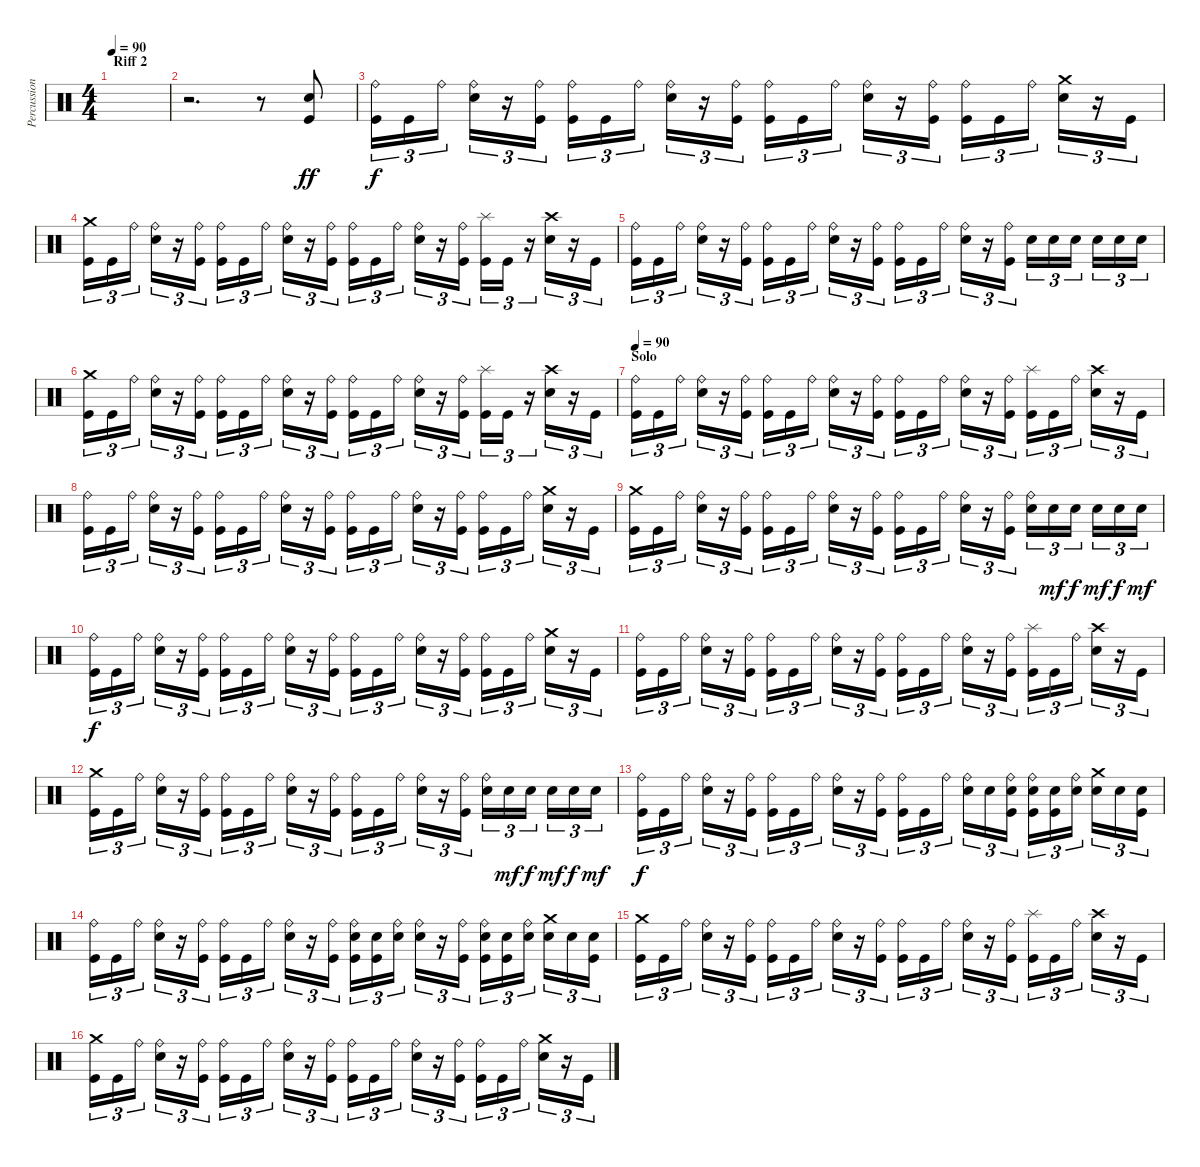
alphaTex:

\track ("Percussioni" "Percussion") {instrument percussion}
\staff {score}
\articulation defaults
\ts (4 4)
\section ("" "Riff 2")
\tempo 90
\clef neutral
\ks c
|
r.2{d} r.8 ("Snare (hit) 2" "Kick (hit)").8{dy ff} |
("Ride (bell)" "Kick (hit)").16{tu (3 2) dy f} "Kick (hit)".16{tu (3 2)} "Ride (bell)".16{tu (3 2)} ("Ride (bell)" "Snare (hit) 2").16{tu (3 2)} r.16{tu (3 2)} ("Ride (bell)" "Kick (hit)").16{tu (3 2)} ("Ride (bell)" "Kick (hit)").16{tu (3 2)} "Kick (hit)".16{tu (3 2)} "Ride (bell)".16{tu (3 2)} ("Ride (bell)" "Snare (hit) 2").16{tu (3 2)} r.16{tu (3 2)} ("Ride (bell)" "Kick (hit)").16{tu (3 2)} ("Ride (bell)" "Kick (hit)").16{tu (3 2)} "Kick (hit)".16{tu (3 2)} "Ride (bell)".16{tu (3 2)} ("Ride (bell)" "Snare (hit) 2").16{tu (3 2)} r.16{tu (3 2)} ("Ride (bell)" "Kick (hit)").16{tu (3 2)} ("Ride (bell)" "Kick (hit)").16{tu (3 2)} "Kick (hit)".16{tu (3 2)} "Ride (bell)".16{tu (3 2)} ("Crash medium (hit)" "Snare (hit) 2").16{tu (3 2)} r.16{tu (3 2)} "Kick (hit)".16{tu (3 2)} |
("Crash medium (hit)" "Kick (hit)").16{tu (3 2)} "Kick (hit)".16{tu (3 2)} "Ride (bell)".16{tu (3 2)} ("Ride (bell)" "Snare (hit) 2").16{tu (3 2)} r.16{tu (3 2)} ("Ride (bell)" "Kick (hit)").16{tu (3 2)} ("Ride (bell)" "Kick (hit)").16{tu (3 2)} "Kick (hit)".16{tu (3 2)} "Ride (bell)".16{tu (3 2)} ("Ride (bell)" "Snare (hit) 2").16{tu (3 2)} r.16{tu (3 2)} ("Ride (bell)" "Kick (hit)").16{tu (3 2)} ("Ride (bell)" "Kick (hit)").16{tu (3 2)} "Kick (hit)".16{tu (3 2)} "Ride (bell)".16{tu (3 2)} ("Ride (bell)" "Snare (hit) 2").16{tu (3 2)} r.16{tu (3 2)} ("Ride (bell)" "Kick (hit)").16{tu (3 2)} ("Splash (hit)" "Kick (hit)").16{tu (3 2)} "Kick (hit)".16{tu (3 2)} r.16{tu (3 2)} ("Crash high (hit)" "Snare (hit) 2").16{tu (3 2)} r.16{tu (3 2)} "Kick (hit)".16{tu (3 2)} |
("Ride (bell)" "Kick (hit)").16{tu (3 2)} "Kick (hit)".16{tu (3 2)} "Ride (bell)".16{tu (3 2)} ("Ride (bell)" "Snare (hit) 2").16{tu (3 2)} r.16{tu (3 2)} ("Ride (bell)" "Kick (hit)").16{tu (3 2)} ("Ride (bell)" "Kick (hit)").16{tu (3 2)} "Kick (hit)".16{tu (3 2)} "Ride (bell)".16{tu (3 2)} ("Ride (bell)" "Snare (hit) 2").16{tu (3 2)} r.16{tu (3 2)} ("Ride (bell)" "Kick (hit)").16{tu (3 2)} ("Ride (bell)" "Kick (hit)").16{tu (3 2)} "Kick (hit)".16{tu (3 2)} "Ride (bell)".16{tu (3 2)} ("Ride (bell)" "Snare (hit) 2").16{tu (3 2)} r.16{tu (3 2)} ("Ride (bell)" "Kick (hit)").16{tu (3 2)} "Snare (hit) 2".16{tu (3 2)} "Snare (hit) 2".16{tu (3 2)} "Snare (hit) 2".16{tu (3 2)} "Snare (hit) 2".16{tu (3 2)} "Snare (hit) 2".16{tu (3 2)} "Snare (hit) 2".16{tu (3 2)} |
("Crash medium (hit)" "Kick (hit)").16{tu (3 2)} "Kick (hit)".16{tu (3 2)} "Ride (bell)".16{tu (3 2)} ("Ride (bell)" "Snare (hit) 2").16{tu (3 2)} r.16{tu (3 2)} ("Ride (bell)" "Kick (hit)").16{tu (3 2)} ("Ride (bell)" "Kick (hit)").16{tu (3 2)} "Kick (hit)".16{tu (3 2)} "Ride (bell)".16{tu (3 2)} ("Ride (bell)" "Snare (hit) 2").16{tu (3 2)} r.16{tu (3 2)} ("Ride (bell)" "Kick (hit)").16{tu (3 2)} ("Ride (bell)" "Kick (hit)").16{tu (3 2)} "Kick (hit)".16{tu (3 2)} "Ride (bell)".16{tu (3 2)} ("Ride (bell)" "Snare (hit) 2").16{tu (3 2)} r.16{tu (3 2)} ("Ride (bell)" "Kick (hit)").16{tu (3 2)} ("Splash (hit)" "Kick (hit)").16{tu (3 2)} "Kick (hit)".16{tu (3 2)} r.16{tu (3 2)} ("Crash high (hit)" "Snare (hit) 2").16{tu (3 2)} r.16{tu (3 2)} "Kick (hit)".16{tu (3 2)} |
\section ("" "Solo")
\tempo 90
("Ride (bell)" "Kick (hit)").16{tu (3 2)} "Kick (hit)".16{tu (3 2)} "Ride (bell)".16{tu (3 2)} ("Ride (bell)" "Snare (hit) 2").16{tu (3 2)} r.16{tu (3 2)} ("Ride (bell)" "Kick (hit)").16{tu (3 2)} ("Ride (bell)" "Kick (hit)").16{tu (3 2)} "Kick (hit)".16{tu (3 2)} "Ride (bell)".16{tu (3 2)} ("Ride (bell)" "Snare (hit) 2").16{tu (3 2)} r.16{tu (3 2)} ("Ride (bell)" "Kick (hit)").16{tu (3 2)} ("Ride (bell)" "Kick (hit)").16{tu (3 2)} "Kick (hit)".16{tu (3 2)} "Ride (bell)".16{tu (3 2)} ("Ride (bell)" "Snare (hit) 2").16{tu (3 2)} r.16{tu (3 2)} ("Ride (bell)" "Kick (hit)").16{tu (3 2)} ("Splash (hit)" "Kick (hit)").16{tu (3 2)} "Kick (hit)".16{tu (3 2)} "Ride (bell)".16{tu (3 2)} ("Crash high (hit)" "Snare (hit) 2").16{tu (3 2)} r.16{tu (3 2)} "Kick (hit)".16{tu (3 2)} |
("Ride (bell)" "Kick (hit)").16{tu (3 2)} "Kick (hit)".16{tu (3 2)} "Ride (bell)".16{tu (3 2)} ("Ride (bell)" "Snare (hit) 2").16{tu (3 2)} r.16{tu (3 2)} ("Ride (bell)" "Kick (hit)").16{tu (3 2)} ("Ride (bell)" "Kick (hit)").16{tu (3 2)} "Kick (hit)".16{tu (3 2)} "Ride (bell)".16{tu (3 2)} ("Ride (bell)" "Snare (hit) 2").16{tu (3 2)} r.16{tu (3 2)} ("Ride (bell)" "Kick (hit)").16{tu (3 2)} ("Ride (bell)" "Kick (hit)").16{tu (3 2)} "Kick (hit)".16{tu (3 2)} "Ride (bell)".16{tu (3 2)} ("Ride (bell)" "Snare (hit) 2").16{tu (3 2)} r.16{tu (3 2)} ("Ride (bell)" "Kick (hit)").16{tu (3 2)} ("Ride (bell)" "Kick (hit)").16{tu (3 2)} "Kick (hit)".16{tu (3 2)} "Ride (bell)".16{tu (3 2)} ("Crash medium (hit)" "Snare (hit) 2").16{tu (3 2)} r.16{tu (3 2)} "Kick (hit)".16{tu (3 2)} |
("Crash medium (hit)" "Kick (hit)").16{tu (3 2)} "Kick (hit)".16{tu (3 2)} "Ride (bell)".16{tu (3 2)} ("Ride (bell)" "Snare (hit) 2").16{tu (3 2)} r.16{tu (3 2)} ("Ride (bell)" "Kick (hit)").16{tu (3 2)} ("Ride (bell)" "Kick (hit)").16{tu (3 2)} "Kick (hit)".16{tu (3 2)} "Ride (bell)".16{tu (3 2)} ("Ride (bell)" "Snare (hit) 2").16{tu (3 2)} r.16{tu (3 2)} ("Ride (bell)" "Kick (hit)").16{tu (3 2)} ("Ride (bell)" "Kick (hit)").16{tu (3 2)} "Kick (hit)".16{tu (3 2)} "Ride (bell)".16{tu (3 2)} ("Ride (bell)" "Snare (hit) 2").16{tu (3 2)} r.16{tu (3 2)} ("Ride (bell)" "Kick (hit)").16{tu (3 2)} ("Ride (bell)" "Snare (hit) 2").16{tu (3 2)} "Snare (hit) 2".16{tu (3 2) dy mf} "Snare (hit) 2".16{tu (3 2) dy f} "Snare (hit) 2".16{tu (3 2) dy mf} "Snare (hit) 2".16{tu (3 2) dy f} "Snare (hit) 2".16{tu (3 2) dy mf} |
("Ride (bell)" "Kick (hit)").16{tu (3 2) dy f} "Kick (hit)".16{tu (3 2)} "Ride (bell)".16{tu (3 2)} ("Ride (bell)" "Snare (hit) 2").16{tu (3 2)} r.16{tu (3 2)} ("Ride (bell)" "Kick (hit)").16{tu (3 2)} ("Ride (bell)" "Kick (hit)").16{tu (3 2)} "Kick (hit)".16{tu (3 2)} "Ride (bell)".16{tu (3 2)} ("Ride (bell)" "Snare (hit) 2").16{tu (3 2)} r.16{tu (3 2)} ("Ride (bell)" "Kick (hit)").16{tu (3 2)} ("Ride (bell)" "Kick (hit)").16{tu (3 2)} "Kick (hit)".16{tu (3 2)} "Ride (bell)".16{tu (3 2)} ("Ride (bell)" "Snare (hit) 2").16{tu (3 2)} r.16{tu (3 2)} ("Ride (bell)" "Kick (hit)").16{tu (3 2)} ("Ride (bell)" "Kick (hit)").16{tu (3 2)} "Kick (hit)".16{tu (3 2)} "Ride (bell)".16{tu (3 2)} ("Crash medium (hit)" "Snare (hit) 2").16{tu (3 2)} r.16{tu (3 2)} "Kick (hit)".16{tu (3 2)} |
("Ride (bell)" "Kick (hit)").16{tu (3 2)} "Kick (hit)".16{tu (3 2)} "Ride (bell)".16{tu (3 2)} ("Ride (bell)" "Snare (hit) 2").16{tu (3 2)} r.16{tu (3 2)} ("Ride (bell)" "Kick (hit)").16{tu (3 2)} ("Ride (bell)" "Kick (hit)").16{tu (3 2)} "Kick (hit)".16{tu (3 2)} "Ride (bell)".16{tu (3 2)} ("Ride (bell)" "Snare (hit) 2").16{tu (3 2)} r.16{tu (3 2)} ("Ride (bell)" "Kick (hit)").16{tu (3 2)} ("Ride (bell)" "Kick (hit)").16{tu (3 2)} "Kick (hit)".16{tu (3 2)} "Ride (bell)".16{tu (3 2)} ("Ride (bell)" "Snare (hit) 2").16{tu (3 2)} r.16{tu (3 2)} ("Ride (bell)" "Kick (hit)").16{tu (3 2)} ("Splash (hit)" "Kick (hit)").16{tu (3 2)} "Kick (hit)".16{tu (3 2)} "Ride (bell)".16{tu (3 2)} ("Crash high (hit)" "Snare (hit) 2").16{tu (3 2)} r.16{tu (3 2)} "Kick (hit)".16{tu (3 2)} |
("Crash medium (hit)" "Kick (hit)").16{tu (3 2)} "Kick (hit)".16{tu (3 2)} "Ride (bell)".16{tu (3 2)} ("Ride (bell)" "Snare (hit) 2").16{tu (3 2)} r.16{tu (3 2)} ("Ride (bell)" "Kick (hit)").16{tu (3 2)} ("Ride (bell)" "Kick (hit)").16{tu (3 2)} "Kick (hit)".16{tu (3 2)} "Ride (bell)".16{tu (3 2)} ("Ride (bell)" "Snare (hit) 2").16{tu (3 2)} r.16{tu (3 2)} ("Ride (bell)" "Kick (hit)").16{tu (3 2)} ("Ride (bell)" "Kick (hit)").16{tu (3 2)} "Kick (hit)".16{tu (3 2)} "Ride (bell)".16{tu (3 2)} ("Ride (bell)" "Snare (hit) 2").16{tu (3 2)} r.16{tu (3 2)} ("Ride (bell)" "Kick (hit)").16{tu (3 2)} ("Ride (bell)" "Snare (hit) 2").16{tu (3 2)} "Snare (hit) 2".16{tu (3 2) dy mf} "Snare (hit) 2".16{tu (3 2) dy f} "Snare (hit) 2".16{tu (3 2) dy mf} "Snare (hit) 2".16{tu (3 2) dy f} "Snare (hit) 2".16{tu (3 2) dy mf} |
("Ride (bell)" "Kick (hit)").16{tu (3 2) dy f} "Kick (hit)".16{tu (3 2)} "Ride (bell)".16{tu (3 2)} ("Ride (bell)" "Snare (hit) 2").16{tu (3 2)} r.16{tu (3 2)} ("Ride (bell)" "Kick (hit)").16{tu (3 2)} ("Ride (bell)" "Kick (hit)").16{tu (3 2)} "Kick (hit)".16{tu (3 2)} "Ride (bell)".16{tu (3 2)} ("Ride (bell)" "Snare (hit) 2").16{tu (3 2)} r.16{tu (3 2)} ("Ride (bell)" "Kick (hit)").16{tu (3 2)} ("Ride (bell)" "Kick (hit)").16{tu (3 2)} "Kick (hit)".16{tu (3 2)} "Ride (bell)".16{tu (3 2)} ("Ride (bell)" "Snare (hit) 2").16{tu (3 2)} "Snare (hit) 2".16{tu (3 2)} ("Ride (bell)" "Snare (hit) 2" "Kick (hit)").16{tu (3 2)} ("Ride (bell)" "Snare (hit) 2" "Kick (hit)").16{tu (3 2)} ("Snare (hit) 2" "Kick (hit)").16{tu (3 2)} ("Ride (bell)" "Snare (hit) 2").16{tu (3 2)} ("Crash medium (hit)" "Snare (hit) 2").16{tu (3 2)} "Snare (hit) 2".16{tu (3 2)} ("Snare (hit) 2" "Kick (hit)").16{tu (3 2)} |
("Ride (bell)" "Kick (hit)").16{tu (3 2)} "Kick (hit)".16{tu (3 2)} "Ride (bell)".16{tu (3 2)} ("Ride (bell)" "Snare (hit) 2").16{tu (3 2)} r.16{tu (3 2)} ("Ride (bell)" "Kick (hit)").16{tu (3 2)} ("Ride (bell)" "Kick (hit)").16{tu (3 2)} "Kick (hit)".16{tu (3 2)} "Ride (bell)".16{tu (3 2)} ("Ride (bell)" "Snare (hit) 2").16{tu (3 2)} r.16{tu (3 2)} ("Ride (bell)" "Kick (hit)").16{tu (3 2)} ("Ride (bell)" "Snare (hit) 2" "Kick (hit)").16{tu (3 2)} ("Snare (hit) 2" "Kick (hit)").16{tu (3 2)} ("Ride (bell)" "Snare (hit) 2").16{tu (3 2)} ("Ride (bell)" "Snare (hit) 2").16{tu (3 2)} r.16{tu (3 2)} ("Ride (bell)" "Kick (hit)").16{tu (3 2)} ("Ride (bell)" "Snare (hit) 2" "Kick (hit)").16{tu (3 2)} ("Snare (hit) 2" "Kick (hit)").16{tu (3 2)} ("Ride (bell)" "Snare (hit) 2").16{tu (3 2)} ("Crash medium (hit)" "Snare (hit) 2").16{tu (3 2)} "Snare (hit) 2".16{tu (3 2)} ("Snare (hit) 2" "Kick (hit)").16{tu (3 2)} |
("Crash medium (hit)" "Kick (hit)").16{tu (3 2)} "Kick (hit)".16{tu (3 2)} "Ride (bell)".16{tu (3 2)} ("Ride (bell)" "Snare (hit) 2").16{tu (3 2)} r.16{tu (3 2)} ("Ride (bell)" "Kick (hit)").16{tu (3 2)} ("Ride (bell)" "Kick (hit)").16{tu (3 2)} "Kick (hit)".16{tu (3 2)} "Ride (bell)".16{tu (3 2)} ("Ride (bell)" "Snare (hit) 2").16{tu (3 2)} r.16{tu (3 2)} ("Ride (bell)" "Kick (hit)").16{tu (3 2)} ("Ride (bell)" "Kick (hit)").16{tu (3 2)} "Kick (hit)".16{tu (3 2)} "Ride (bell)".16{tu (3 2)} ("Ride (bell)" "Snare (hit) 2").16{tu (3 2)} r.16{tu (3 2)} ("Ride (bell)" "Kick (hit)").16{tu (3 2)} ("Splash (hit)" "Kick (hit)").16{tu (3 2)} "Kick (hit)".16{tu (3 2)} "Ride (bell)".16{tu (3 2)} ("Crash high (hit)" "Snare (hit) 2").16{tu (3 2)} r.16{tu (3 2)} "Kick (hit)".16{tu (3 2)} |
("Crash medium (hit)" "Kick (hit)").16{tu (3 2)} "Kick (hit)".16{tu (3 2)} "Ride (bell)".16{tu (3 2)} ("Ride (bell)" "Snare (hit) 2").16{tu (3 2)} r.16{tu (3 2)} ("Ride (bell)" "Kick (hit)").16{tu (3 2)} ("Ride (bell)" "Kick (hit)").16{tu (3 2)} "Kick (hit)".16{tu (3 2)} "Ride (bell)".16{tu (3 2)} ("Ride (bell)" "Snare (hit) 2").16{tu (3 2)} r.16{tu (3 2)} ("Ride (bell)" "Kick (hit)").16{tu (3 2)} ("Ride (bell)" "Kick (hit)").16{tu (3 2)} "Kick (hit)".16{tu (3 2)} "Ride (bell)".16{tu (3 2)} ("Ride (bell)" "Snare (hit) 2").16{tu (3 2)} r.16{tu (3 2)} ("Ride (bell)" "Kick (hit)").16{tu (3 2)} ("Ride (bell)" "Kick (hit)").16{tu (3 2)} "Kick (hit)".16{tu (3 2)} "Ride (bell)".16{tu (3 2)} ("Crash medium (hit)" "Snare (hit) 2").16{tu (3 2)} r.16{tu (3 2)} "Kick (hit)".16{tu (3 2)}
